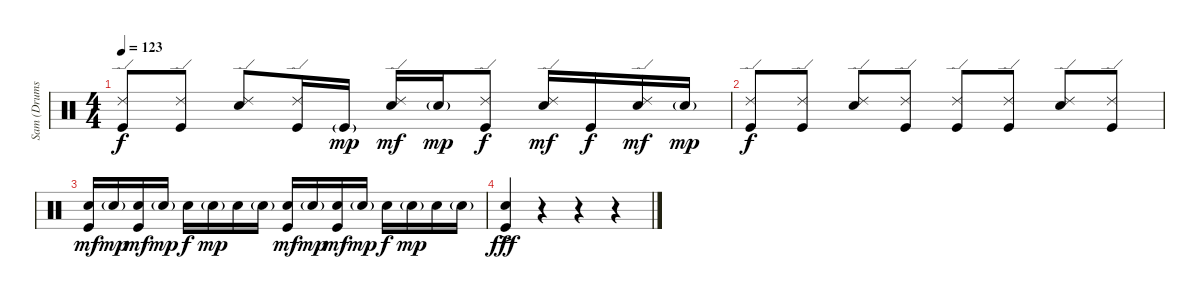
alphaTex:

\track ("Sam (Drums)" "Sam (Drums") {instrument percussion}
\staff {score}
\articulation defaults
\ts (4 4)
\tempo 123
\clef neutral
\ks c
("Ride (edge) 2" "Kick (hit)").8{dy f} ("Ride (edge) 2" "Kick (hit)").8 ("Ride (edge) 2" "Snare (hit) 2").8 ("Ride (edge) 2" "Kick (hit)").16 "Kick (hit)"{g}.16{dy mp} ("Ride (edge) 2" "Snare (hit) 2").16{dy mf} "Snare (hit) 2"{g}.16{dy mp} ("Ride (edge) 2" "Kick (hit)").8{dy f} ("Ride (edge) 2" "Snare (hit) 2").16{dy mf} "Kick (hit)".16{dy f} ("Ride (edge) 2" "Snare (hit) 2").16{dy mf} "Snare (hit) 2"{g}.16{dy mp} |
("Ride (edge) 2" "Kick (hit)").8{dy f} ("Ride (edge) 2" "Kick (hit)").8 ("Ride (edge) 2" "Snare (hit) 2").8 ("Ride (edge) 2" "Kick (hit)").8 ("Ride (edge) 2" "Kick (hit)").8 ("Ride (edge) 2" "Kick (hit)").8 ("Ride (edge) 2" "Snare (hit) 2").8 ("Ride (edge) 2" "Kick (hit)").8 |
("Snare (hit) 2" "Kick (hit)").16{dy mf} "Snare (hit) 2"{g}.16{dy mp} ("Snare (hit) 2" "Kick (hit)").16{dy mf} "Snare (hit) 2"{g}.16{dy mp} "Snare (hit) 2".16{dy f} "Snare (hit) 2"{g}.16{dy mp} "Snare (hit) 2".16 "Snare (hit) 2"{g}.16 ("Snare (hit) 2" "Kick (hit)").16{dy mf} "Snare (hit) 2"{g}.16{dy mp} ("Snare (hit) 2" "Kick (hit)").16{dy mf} "Snare (hit) 2"{g}.16{dy mp} "Snare (hit) 2".16{dy f} "Snare (hit) 2"{g}.16{dy mp} "Snare (hit) 2".16 "Snare (hit) 2"{g}.16 |
("Snare (hit) 2"{ac} "Kick (hit)").4{dy fff} r.4 r.4 r.4
